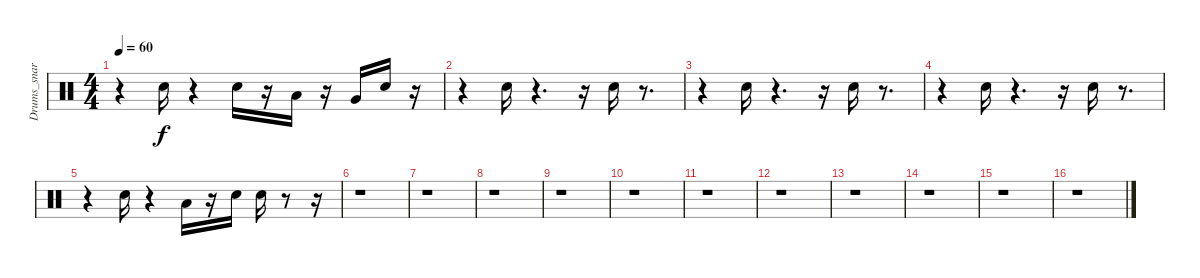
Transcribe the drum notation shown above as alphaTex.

\track ("Drums_snare&tom" "Drums_snar") {instrument percussion}
\staff {score}
\articulation defaults
\ts (4 4)
\tempo 60
\clef neutral
\ks c
r.4{dy f} "Electric Snare (hit)".16 r.4 "Electric Snare (hit)".16 r.16 "Low Tom (hit)".16 r.16 "Very Low Tom (hit)".16 "Electric Snare (hit)".16 r.16 |
r.4 "Electric Snare (hit)".16 r.4{d} r.16 "Electric Snare (hit)".16 r.8{d} |
r.4 "Electric Snare (hit)".16 r.4{d} r.16 "Electric Snare (hit)".16 r.8{d} |
r.4 "Electric Snare (hit)".16 r.4{d} r.16 "Electric Snare (hit)".16 r.8{d} |
r.4 "Electric Snare (hit)".16 r.4 "Low Tom (hit)".16 r.16 "Electric Snare (hit)".16 "Electric Snare (hit)".16 r.8 r.16 |
r.1 |
r.1 |
r.1 |
r.1 |
r.1 |
r.1 |
r.1 |
r.1 |
r.1 |
r.1 |
r.1
